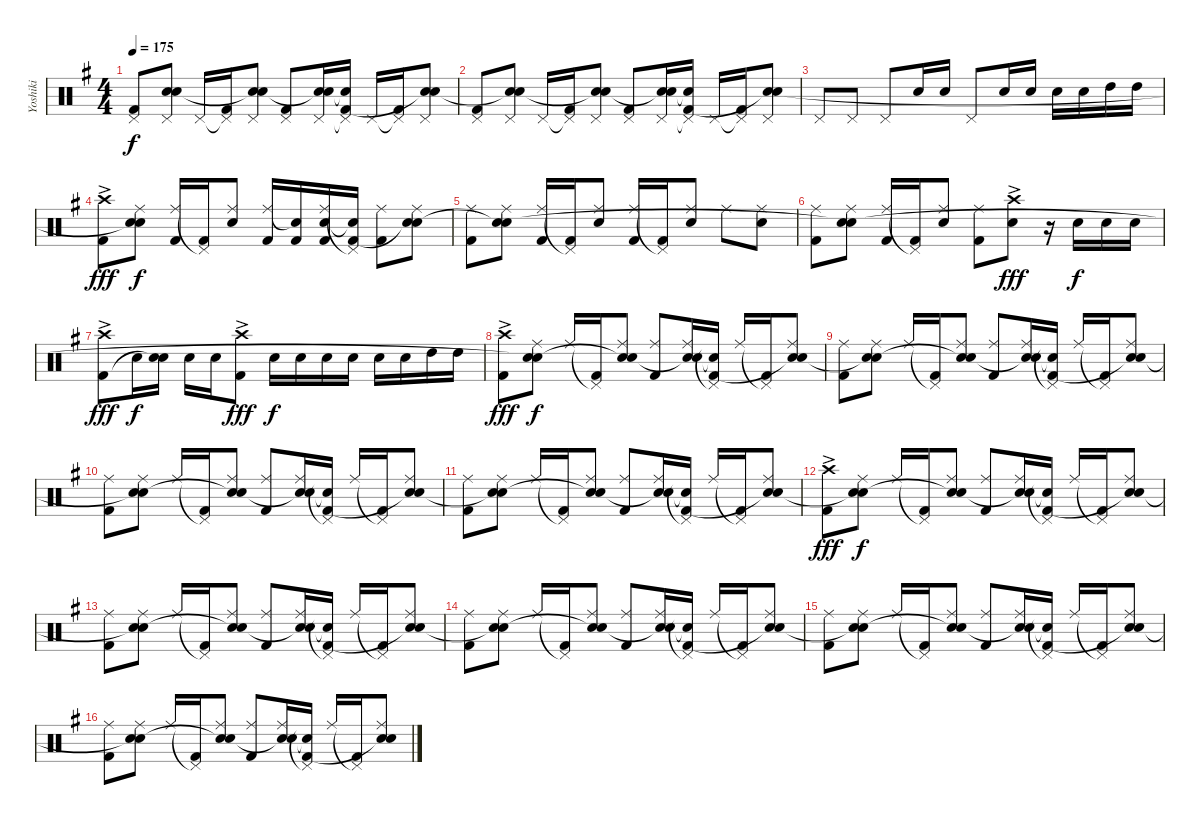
\track ("Yoshiki" "Yoshiki") {instrument percussion}
\staff {score}
\articulation defaults
\ts (4 4)
\tempo 175
\clef neutral
\ks g
("Pedal Hi-Hat (hit)" "Kick (hit) 2").8{dy f} ("Pedal Hi-Hat (hit)" "Snare (hit) 2" "Snare (hit)"{t}).8 "Pedal Hi-Hat (hit)".16 ("Pedal Hi-Hat (hit)"{t} "Kick (hit) 2").16 ("Pedal Hi-Hat (hit)" "Snare (hit) 2" "Snare (hit)"{t}).8 ("Pedal Hi-Hat (hit)" "Kick (hit) 2").8 ("Pedal Hi-Hat (hit)" "Snare (hit) 2" "Snare (hit)"{t}).16 ("Pedal Hi-Hat (hit)"{t} "Snare (hit)"{t} "Kick (hit) 2").16 "Pedal Hi-Hat (hit)".16 ("Pedal Hi-Hat (hit)"{t} "Kick (hit) 2").16 ("Pedal Hi-Hat (hit)" "Snare (hit) 2" "Snare (hit)"{t}).8 |
("Pedal Hi-Hat (hit)" "Kick (hit) 2").8 ("Pedal Hi-Hat (hit)" "Snare (hit) 2" "Snare (hit)"{t}).8 "Pedal Hi-Hat (hit)".16 ("Pedal Hi-Hat (hit)"{t} "Kick (hit) 2").16 ("Pedal Hi-Hat (hit)" "Snare (hit) 2" "Snare (hit)"{t}).8 ("Pedal Hi-Hat (hit)" "Kick (hit) 2").8 ("Pedal Hi-Hat (hit)" "Snare (hit) 2" "Snare (hit)"{t}).16 ("Pedal Hi-Hat (hit)"{t} "Snare (hit)"{t} "Kick (hit) 2").16 "Pedal Hi-Hat (hit)".16 ("Pedal Hi-Hat (hit)"{t} "Kick (hit) 2").16 ("Pedal Hi-Hat (hit)" "Snare (hit) 2" "Snare (hit)"{t}).8 |
"Pedal Hi-Hat (hit)".8 "Pedal Hi-Hat (hit)".8 "Pedal Hi-Hat (hit)".8 "Snare (hit) 2".16 "Snare (hit) 2".16 "Pedal Hi-Hat (hit)".8 "Snare (hit) 2".16 "Snare (hit) 2".16 "Snare (hit) 2".16 "Snare (hit) 2".16 "High Tom (hit)".16 "High Tom (hit)".16 |
("Crash high (hit)"{ac} "Kick (hit) 2"{ac}).8{dy fff} ("Ride (middle)" "Snare (hit) 2" "Snare (hit)"{t}).8{dy f} ("Ride (middle)" "Kick (hit) 2").16 ("Pedal Hi-Hat (hit)"{t} "Kick (hit) 2").16 ("Ride (middle)" "Snare (hit) 2").8 ("Ride (middle)" "Kick (hit) 2").16 ("Snare (hit)"{t} "Kick (hit) 2").16 ("Ride (middle)" "Snare (hit) 2" "Kick (hit) 2").16 ("Pedal Hi-Hat (hit)"{t} "Snare (hit) 2"{t} "Kick (hit) 2").16 ("Ride (middle)" "Kick (hit) 2").8 ("Ride (middle)" "Snare (hit) 2" "Snare (hit)"{t}).8 |
("Ride (middle)" "Kick (hit) 2").8 ("Ride (middle)" "Snare (hit) 2" "Snare (hit)"{t}).8 ("Ride (middle)" "Kick (hit) 2").16 ("Pedal Hi-Hat (hit)"{t} "Kick (hit) 2").16 ("Ride (middle)" "Snare (hit) 2").8 ("Ride (middle)" "Kick (hit) 2").16 ("Pedal Hi-Hat (hit)"{t} "Kick (hit) 2").16 ("Ride (middle)" "Snare (hit) 2").8 "Ride (middle)".8 ("Ride (middle)" "Snare (hit) 2").8 |
("Ride (middle)" "Kick (hit) 2").8 ("Ride (middle)" "Snare (hit) 2" "Snare (hit)"{t}).8 ("Ride (middle)" "Kick (hit) 2").16 ("Pedal Hi-Hat (hit)"{t} "Kick (hit) 2").16 ("Ride (middle)" "Snare (hit) 2").8 ("Ride (middle)" "Kick (hit) 2").8 ("Crash high (hit)"{ac} "Snare (hit) 2").8{dy fff} r.16 "Snare (hit) 2".16{dy f} "Snare (hit) 2".16 "Snare (hit) 2".16 |
("Crash high (hit)"{ac} "Kick (hit) 2"{ac}).8{dy fff} "Snare (hit) 2".16{dy f} ("Snare (hit) 2" "Snare (hit)"{t}).16 "Snare (hit) 2".16 "Snare (hit) 2".16 ("Crash high (hit)"{ac} "Kick (hit) 2"{ac}).8{dy fff} "Snare (hit) 2".16{dy f} "Snare (hit) 2".16 "Snare (hit) 2".16 "Snare (hit) 2".16 "Snare (hit) 2".16 "Snare (hit) 2".16 "High Tom (hit)".16 "High Tom (hit)".16 |
("Crash high (hit)"{ac} "Kick (hit) 2"{ac}).8{dy fff} ("Ride (middle)" "Snare (hit) 2" "Snare (hit)"{t}).8{dy f} "Ride (middle)".16 ("Pedal Hi-Hat (hit)"{t} "Kick (hit) 2").16 ("Ride (middle)" "Snare (hit) 2" "Snare (hit)"{t}).8 ("Ride (middle)" "Kick (hit) 2").8 ("Ride (middle)" "Snare (hit) 2" "Snare (hit)"{t}).16 ("Pedal Hi-Hat (hit)"{t} "Snare (hit) 2"{t} "Kick (hit) 2").16 "Ride (middle)".16 ("Pedal Hi-Hat (hit)"{t} "Kick (hit) 2").16 ("Ride (middle)" "Snare (hit) 2" "Snare (hit)"{t}).8 |
("Ride (middle)" "Kick (hit) 2").8 ("Ride (middle)" "Snare (hit) 2" "Snare (hit)"{t}).8 "Ride (middle)".16 ("Pedal Hi-Hat (hit)"{t} "Kick (hit) 2").16 ("Ride (middle)" "Snare (hit) 2" "Snare (hit)"{t}).8 ("Ride (middle)" "Kick (hit) 2").8 ("Ride (middle)" "Snare (hit) 2" "Snare (hit)"{t}).16 ("Pedal Hi-Hat (hit)"{t} "Snare (hit) 2"{t} "Kick (hit) 2").16 "Ride (middle)".16 ("Pedal Hi-Hat (hit)"{t} "Kick (hit) 2").16 ("Ride (middle)" "Snare (hit) 2" "Snare (hit)"{t}).8 |
("Ride (middle)" "Kick (hit) 2").8 ("Ride (middle)" "Snare (hit) 2" "Snare (hit)"{t}).8 "Ride (middle)".16 ("Pedal Hi-Hat (hit)"{t} "Kick (hit) 2").16 ("Ride (middle)" "Snare (hit) 2" "Snare (hit)"{t}).8 ("Ride (middle)" "Kick (hit) 2").8 ("Ride (middle)" "Snare (hit) 2" "Snare (hit)"{t}).16 ("Pedal Hi-Hat (hit)"{t} "Snare (hit) 2"{t} "Kick (hit) 2").16 "Ride (middle)".16 ("Pedal Hi-Hat (hit)"{t} "Kick (hit) 2").16 ("Ride (middle)" "Snare (hit) 2" "Snare (hit)"{t}).8 |
("Ride (middle)" "Kick (hit) 2").8 ("Ride (middle)" "Snare (hit) 2" "Snare (hit)"{t}).8 "Ride (middle)".16 ("Pedal Hi-Hat (hit)"{t} "Kick (hit) 2").16 ("Ride (middle)" "Snare (hit) 2" "Snare (hit)"{t}).8 ("Ride (middle)" "Kick (hit) 2").8 ("Ride (middle)" "Snare (hit) 2" "Snare (hit)"{t}).16 ("Pedal Hi-Hat (hit)"{t} "Snare (hit) 2"{t} "Kick (hit) 2").16 "Ride (middle)".16 ("Pedal Hi-Hat (hit)"{t} "Kick (hit) 2").16 ("Ride (middle)" "Snare (hit) 2" "Snare (hit)"{t}).8 |
("Crash high (hit)"{ac} "Kick (hit) 2"{ac}).8{dy fff} ("Ride (middle)" "Snare (hit) 2" "Snare (hit)"{t}).8{dy f} "Ride (middle)".16 ("Pedal Hi-Hat (hit)"{t} "Kick (hit) 2").16 ("Ride (middle)" "Snare (hit) 2" "Snare (hit)"{t}).8 ("Ride (middle)" "Kick (hit) 2").8 ("Ride (middle)" "Snare (hit) 2" "Snare (hit)"{t}).16 ("Pedal Hi-Hat (hit)"{t} "Snare (hit) 2"{t} "Kick (hit) 2").16 "Ride (middle)".16 ("Pedal Hi-Hat (hit)"{t} "Kick (hit) 2").16 ("Ride (middle)" "Snare (hit) 2" "Snare (hit)"{t}).8 |
("Ride (middle)" "Kick (hit) 2").8 ("Ride (middle)" "Snare (hit) 2" "Snare (hit)"{t}).8 "Ride (middle)".16 ("Pedal Hi-Hat (hit)"{t} "Kick (hit) 2").16 ("Ride (middle)" "Snare (hit) 2" "Snare (hit)"{t}).8 ("Ride (middle)" "Kick (hit) 2").8 ("Ride (middle)" "Snare (hit) 2" "Snare (hit)"{t}).16 ("Pedal Hi-Hat (hit)"{t} "Snare (hit) 2"{t} "Kick (hit) 2").16 "Ride (middle)".16 ("Pedal Hi-Hat (hit)"{t} "Kick (hit) 2").16 ("Ride (middle)" "Snare (hit) 2" "Snare (hit)"{t}).8 |
("Ride (middle)" "Kick (hit) 2").8 ("Ride (middle)" "Snare (hit) 2" "Snare (hit)"{t}).8 "Ride (middle)".16 ("Pedal Hi-Hat (hit)"{t} "Kick (hit) 2").16 ("Ride (middle)" "Snare (hit) 2" "Snare (hit)"{t}).8 ("Ride (middle)" "Kick (hit) 2").8 ("Ride (middle)" "Snare (hit) 2" "Snare (hit)"{t}).16 ("Pedal Hi-Hat (hit)"{t} "Snare (hit) 2"{t} "Kick (hit) 2").16 "Ride (middle)".16 ("Pedal Hi-Hat (hit)"{t} "Kick (hit) 2").16 ("Ride (middle)" "Snare (hit) 2" "Snare (hit)"{t}).8 |
("Ride (middle)" "Kick (hit) 2").8 ("Ride (middle)" "Snare (hit) 2" "Snare (hit)"{t}).8 "Ride (middle)".16 ("Pedal Hi-Hat (hit)"{t} "Kick (hit) 2").16 ("Ride (middle)" "Snare (hit) 2" "Snare (hit)"{t}).8 ("Ride (middle)" "Kick (hit) 2").8 ("Ride (middle)" "Snare (hit) 2" "Snare (hit)"{t}).16 ("Pedal Hi-Hat (hit)"{t} "Snare (hit) 2"{t} "Kick (hit) 2").16 "Ride (middle)".16 ("Pedal Hi-Hat (hit)"{t} "Kick (hit) 2").16 ("Ride (middle)" "Snare (hit) 2" "Snare (hit)"{t}).8 |
("Ride (middle)" "Kick (hit) 2").8 ("Ride (middle)" "Snare (hit) 2" "Snare (hit)"{t}).8 "Ride (middle)".16 ("Pedal Hi-Hat (hit)"{t} "Kick (hit) 2").16 ("Ride (middle)" "Snare (hit) 2" "Snare (hit)"{t}).8 ("Ride (middle)" "Kick (hit) 2").8 ("Ride (middle)" "Snare (hit) 2" "Snare (hit)"{t}).16 ("Pedal Hi-Hat (hit)"{t} "Snare (hit) 2"{t} "Kick (hit) 2").16 "Ride (middle)".16 ("Pedal Hi-Hat (hit)"{t} "Kick (hit) 2").16 ("Ride (middle)" "Snare (hit) 2" "Snare (hit)"{t}).8
